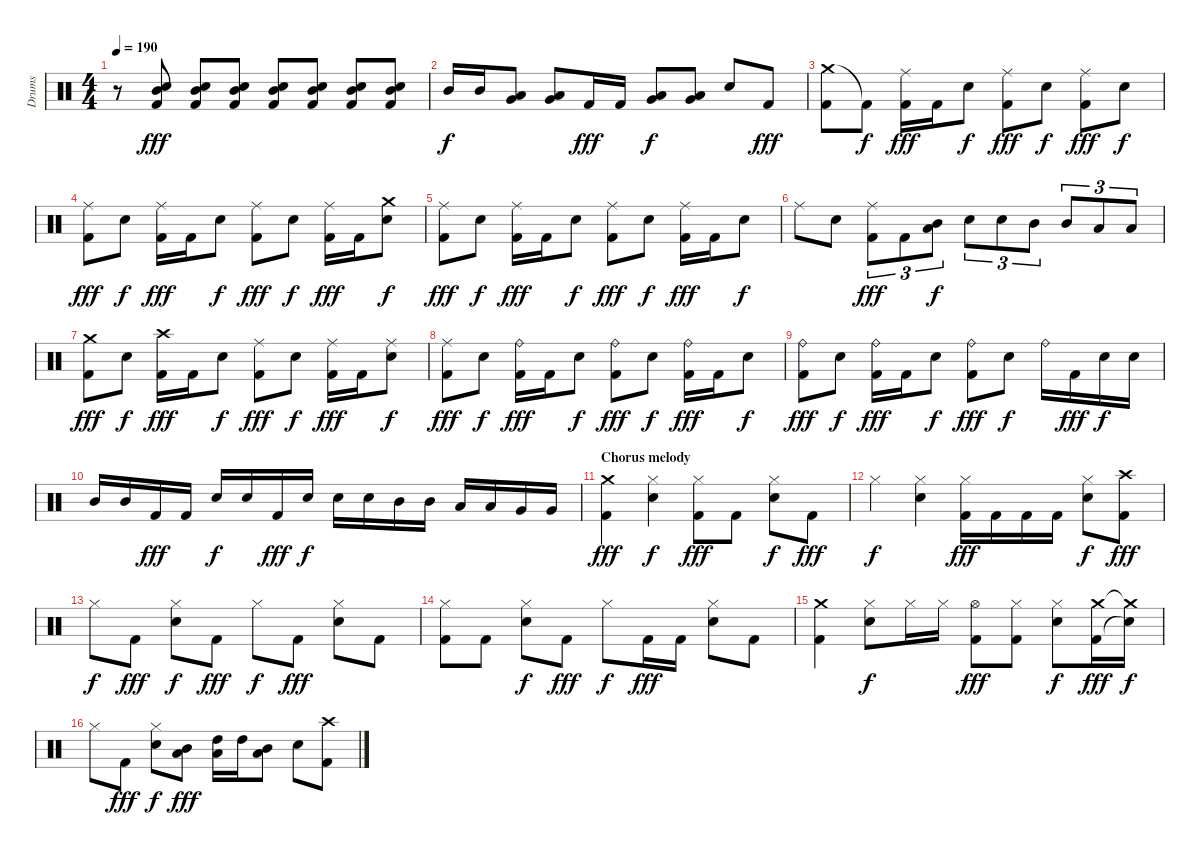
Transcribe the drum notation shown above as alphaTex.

\track ("Drums" "Drums") {instrument percussion}
\staff {score}
\articulation defaults
\ts (4 4)
\tempo 190
\clef neutral
\ks c
r.8{dy fff} ("Mid Tom (hit)" "Snare (hit) 2" "Kick (hit) 2").8 ("Mid Tom (hit)" "Snare (hit) 2" "Kick (hit) 2").8 ("Mid Tom (hit)" "Snare (hit) 2" "Kick (hit) 2").8 ("Mid Tom (hit)" "Snare (hit) 2" "Kick (hit) 2").8 ("Mid Tom (hit)" "Snare (hit) 2" "Kick (hit) 2").8 ("Mid Tom (hit)" "Snare (hit) 2" "Kick (hit) 2").8 ("Mid Tom (hit)" "Snare (hit) 2" "Kick (hit) 2").8 |
"Mid Tom (hit)".16{dy f} "Mid Tom (hit)".16 ("Low Tom (hit)" "Very Low Tom (hit)").8 ("Low Tom (hit)" "Very Low Tom (hit)").8 "Kick (hit) 2".16{dy fff} "Kick (hit) 2".16 ("Low Tom (hit)" "Very Low Tom (hit)").8{dy f} ("Low Tom (hit)" "Very Low Tom (hit)").8 "Snare (hit) 2".8 "Kick (hit) 2".8{dy fff} |
("Crash medium (hit)" "Kick (hit) 2").8 "Kick (hit) 2"{t}.8{dy f} ("Ride (middle)" "Kick (hit) 2").16{dy fff} "Kick (hit) 2".16 "Snare (hit) 2".8{dy f} ("Ride (middle)" "Kick (hit) 2").8{dy fff} "Snare (hit) 2".8{dy f} ("Ride (middle)" "Kick (hit) 2").8{dy fff} "Snare (hit) 2".8{dy f} |
("Ride (middle)" "Kick (hit) 2").8{dy fff} "Snare (hit) 2".8{dy f} ("Ride (middle)" "Kick (hit) 2").16{dy fff} "Kick (hit) 2".16 "Snare (hit) 2".8{dy f} ("Ride (middle)" "Kick (hit) 2").8{dy fff} "Snare (hit) 2".8{dy f} ("Ride (middle)" "Kick (hit) 2").16{dy fff} "Kick (hit) 2".16 ("Crash medium (hit)" "Snare (hit) 2").8{dy f} |
("Ride (middle)" "Kick (hit) 2").8{dy fff} "Snare (hit) 2".8{dy f} ("Ride (middle)" "Kick (hit) 2").16{dy fff} "Kick (hit) 2".16 "Snare (hit) 2".8{dy f} ("Ride (middle)" "Kick (hit) 2").8{dy fff} "Snare (hit) 2".8{dy f} ("Ride (middle)" "Kick (hit) 2").16{dy fff} "Kick (hit) 2".16 "Snare (hit) 2".8{dy f} |
"Ride (middle)".8 "Snare (hit) 2".8 ("Ride (middle)" "Kick (hit) 2").8{tu (3 2) dy fff} "Kick (hit) 2".8{tu (3 2)} ("Mid Tom (hit)" "Low Tom (hit)").8{tu (3 2) dy f} "Snare (hit) 2".8{tu (3 2)} "Snare (hit) 2".8{tu (3 2)} "Mid Tom (hit)".8{tu (3 2)} "Mid Tom (hit)".8{tu (3 2)} "Low Tom (hit)".8{tu (3 2)} "Low Tom (hit)".8{tu (3 2)} |
("Crash medium (hit)" "Kick (hit) 2").8{dy fff} "Snare (hit) 2".8{dy f} ("Crash high (hit)" "Kick (hit) 2").16{dy fff} "Kick (hit) 2".16 "Snare (hit) 2".8{dy f} ("Ride (middle)" "Kick (hit) 2").8{dy fff} "Snare (hit) 2".8{dy f} ("Ride (middle)" "Kick (hit) 2").16{dy fff} "Kick (hit) 2".16 ("Ride (middle)" "Snare (hit) 2").8{dy f} |
("Ride (middle)" "Kick (hit) 2").8{dy fff} "Snare (hit) 2".8{dy f} ("Ride (bell)" "Kick (hit) 2").16{dy fff} "Kick (hit) 2".16 "Snare (hit) 2".8{dy f} ("Ride (bell)" "Kick (hit) 2").8{dy fff} "Snare (hit) 2".8{dy f} ("Ride (bell)" "Kick (hit) 2").16{dy fff} "Kick (hit) 2".16 "Snare (hit) 2".8{dy f} |
("Ride (bell)" "Kick (hit) 2").8{dy fff} "Snare (hit) 2".8{dy f} ("Ride (bell)" "Kick (hit) 2").16{dy fff} "Kick (hit) 2".16 "Snare (hit) 2".8{dy f} ("Ride (bell)" "Kick (hit) 2").8{dy fff} "Snare (hit) 2".8{dy f} "Ride (bell)".16 "Kick (hit) 2".16{dy fff} "Snare (hit) 2".16{dy f} "Snare (hit) 2".16 |
"Mid Tom (hit)".16 "Mid Tom (hit)".16 "Kick (hit) 2".16{dy fff} "Kick (hit) 2".16 "Snare (hit) 2".16{dy f} "Snare (hit) 2".16 "Kick (hit) 2".16{dy fff} "Snare (hit) 2".16{dy f} "Snare (hit) 2".16 "Snare (hit) 2".16 "Mid Tom (hit)".16 "Mid Tom (hit)".16 "Low Tom (hit)".16 "Low Tom (hit)".16 "Very Low Tom (hit)".16 "Very Low Tom (hit)".16 |
\section ("" "Chorus melody")
("Crash medium (hit)" "Kick (hit) 2").4{dy fff} ("Hi-Hat (closed)" "Snare (hit) 2").4{dy f} ("Hi-Hat (closed)" "Kick (hit) 2").8{dy fff} "Kick (hit) 2".8 ("Hi-Hat (closed)" "Snare (hit) 2").8{dy f} "Kick (hit) 2".8{dy fff} |
"Hi-Hat (closed)".4{dy f} ("Hi-Hat (closed)" "Snare (hit) 2").4 ("Hi-Hat (closed)" "Kick (hit) 2").16{dy fff} "Kick (hit) 2".16 "Kick (hit) 2".16 "Kick (hit) 2".16 ("Hi-Hat (closed)" "Snare (hit) 2").8{dy f} ("Crash high (hit)" "Kick (hit) 2").8{dy fff} |
"Hi-Hat (closed)".8{dy f} "Kick (hit) 2".8{dy fff} ("Hi-Hat (closed)" "Snare (hit) 2").8{dy f} "Kick (hit) 2".8{dy fff} "Hi-Hat (closed)".8{dy f} "Kick (hit) 2".8{dy fff} ("Hi-Hat (closed)" "Snare (hit) 2").8 "Kick (hit) 2".8 |
("Hi-Hat (closed)" "Kick (hit) 2").8 "Kick (hit) 2".8 ("Hi-Hat (closed)" "Snare (hit) 2").8{dy f} "Kick (hit) 2".8{dy fff} "Hi-Hat (closed)".8{dy f} "Kick (hit) 2".16{dy fff} "Kick (hit) 2".16 ("Hi-Hat (closed)" "Snare (hit) 2").8 "Kick (hit) 2".8 |
("Crash medium (hit)" "Kick (hit) 2").4 ("Hi-Hat (closed)" "Snare (hit) 2").8{dy f} "Hi-Hat (closed)".16 "Hi-Hat (closed)".16 ("Hi-Hat (open)" "Kick (hit) 2").8{dy fff} ("Hi-Hat (closed)" "Kick (hit) 2").8 ("Hi-Hat (closed)" "Snare (hit) 2").8{dy f} ("Crash medium (hit)" "Kick (hit) 2").16{dy fff} ("Crash medium (hit)"{t} "Snare (hit)"{t}).16{dy f} |
"Hi-Hat (closed)".8 "Kick (hit) 2".8{dy fff} ("Hi-Hat (closed)" "Snare (hit) 2").8{dy f} ("Mid Tom (hit)" "Low Floor Tom (hit)").8{dy fff} ("High Tom (hit)" "Low Floor Tom (hit)").16 "High Tom (hit)".16 ("Mid Tom (hit)" "Low Floor Tom (hit)").8 "Snare (hit) 2".8 ("Crash high (hit)" "Kick (hit) 2").8
